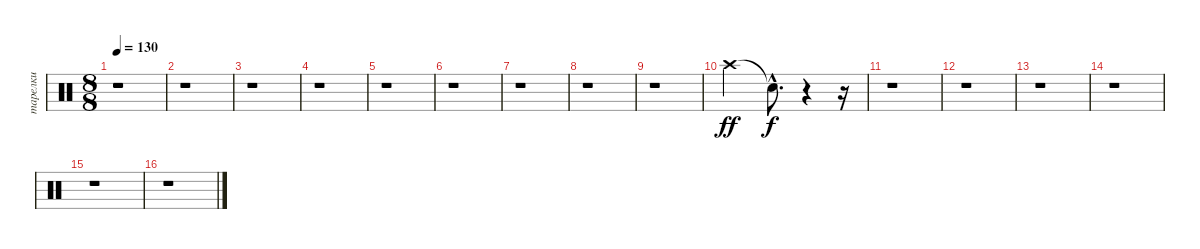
\track ("тарелки" "тарелки") {instrument percussion}
\staff {score}
\articulation defaults
\ts (8 8)
\tempo 130
\clef neutral
\ks c
r.1{dy ff} |
r.1 |
r.1 |
r.1 |
r.1 |
r.1 |
r.1 |
r.1 |
r.1 |
"Crash high (hit)".2 "Snare (hit)"{hac t}.8{d dy f} r.4 r.16 |
r.1 |
r.1 |
r.1 |
r.1 |
r.1 |
r.1
